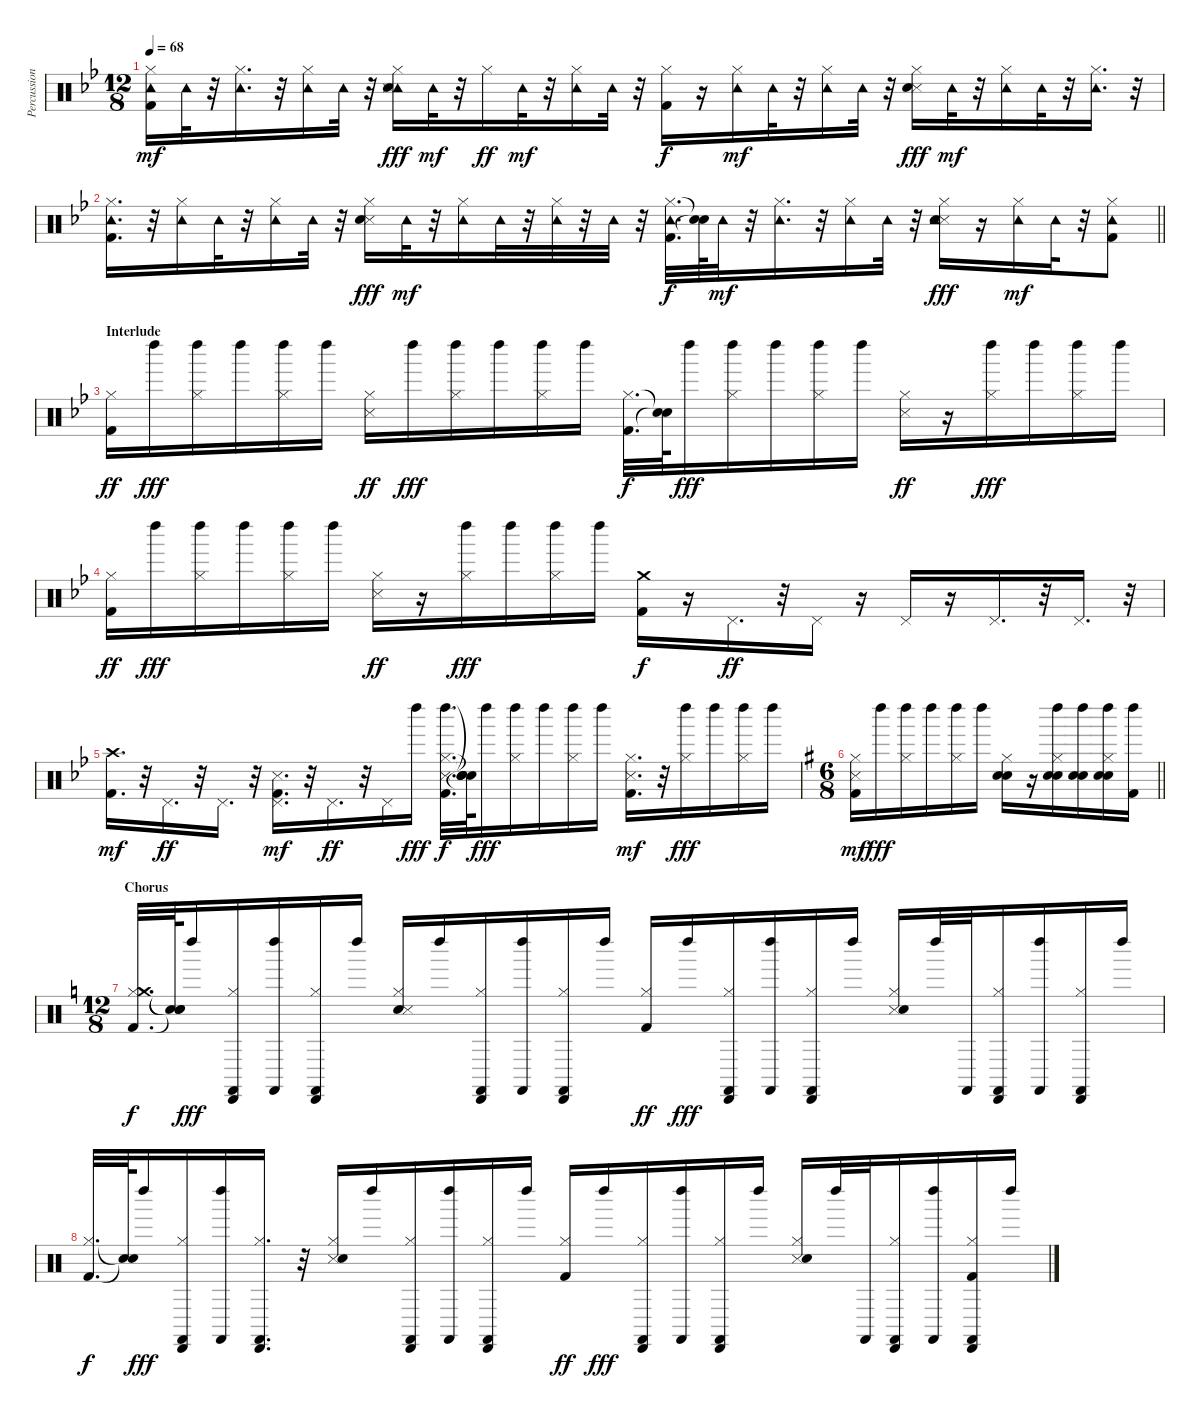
\track ("Percussion" "Percussion") {instrument percussion}
\staff {score}
\articulation defaults
\ts (12 8)
\tempo 68
\clef neutral
\ks gminor
("Kick (hit) 2" "Hi-Hat (closed)" "Tambourine (hit)").16{dy mf} "Tambourine (hit)".32 r.32 ("Hi-Hat (closed)" "Tambourine (hit)").16{d} r.32 ("Hi-Hat (closed)" "Tambourine (hit)").16 "Tambourine (hit)".32 r.32 ("Hi-Hat (closed)" "Tambourine (hit)" "Snare (side stick) 3" "Snare (hit) 2").16{dy fff} "Tambourine (hit)".32{dy mf} r.32 "Hi-Hat (closed)".16{dy ff} "Tambourine (hit)".32{dy mf} r.32 ("Hi-Hat (closed)" "Tambourine (hit)").16 "Tambourine (hit)".32 r.32 ("Kick (hit) 2" "Hi-Hat (closed)").16{dy f} r.16 ("Hi-Hat (closed)" "Tambourine (hit)").16{dy mf} "Tambourine (hit)".32 r.32 ("Hi-Hat (closed)" "Tambourine (hit)").16 "Tambourine (hit)".32 r.32 ("Snare (side stick) 3" "Hi-Hat (closed)" "Snare (hit) 2").16{dy fff} "Tambourine (hit)".32{dy mf} r.32 ("Hi-Hat (closed)" "Tambourine (hit)").16 "Tambourine (hit)".32 r.32 ("Hi-Hat (closed)" "Tambourine (hit)").16{d} r.32 |
\barLineRight lightlight
("Kick (hit) 2" "Hi-Hat (closed)" "Tambourine (hit)").16{d} r.32 ("Hi-Hat (closed)" "Tambourine (hit)").16 "Tambourine (hit)".32 r.32 ("Hi-Hat (closed)" "Tambourine (hit)").16 "Tambourine (hit)".32 r.32 ("Snare (side stick) 3" "Hi-Hat (closed)" "Snare (hit) 2").16{dy fff} "Tambourine (hit)".32{dy mf} r.32 ("Hi-Hat (closed)" "Tambourine (hit)").16 "Tambourine (hit)".32 r.32 ("Tambourine (hit)" "Hi-Hat (closed)").32 r.32 "Tambourine (hit)".32 r.32 ("Kick (hit) 2" "Hi-Hat (closed)" "Tambourine (hit)").32{d dy f} ("Snare (hit)"{t} "Snare (hit)"{t}).64 "Tambourine (hit)".32{dy mf} r.32 ("Hi-Hat (closed)" "Tambourine (hit)").16{d} r.32 ("Hi-Hat (closed)" "Tambourine (hit)").16 "Tambourine (hit)".32 r.32 ("Snare (side stick) 3" "Hi-Hat (closed)" "Tambourine (hit)" "Snare (hit) 2").16{dy fff} r.16 ("Hi-Hat (closed)" "Tambourine (hit)").16{dy mf} "Tambourine (hit)".32 r.32 ("Kick (hit) 2" "Hi-Hat (closed)" "Tambourine (hit)").8 |
\section ("" "Interlude")
("Kick (hit) 2" "Hi-Hat (closed)").16{dy ff} "Left Maraca (hit)".16{dy fff} ("Hi-Hat (closed)" "Left Maraca (hit)").16 "Left Maraca (hit)".16 ("Hi-Hat (closed)" "Left Maraca (hit)").16 "Left Maraca (hit)".16 ("Snare (side stick) 3" "Hi-Hat (closed)").16{dy ff} "Left Maraca (hit)".16{dy fff} ("Hi-Hat (closed)" "Left Maraca (hit)").16 "Left Maraca (hit)".16 ("Hi-Hat (closed)" "Left Maraca (hit)").16 "Left Maraca (hit)".16 ("Kick (hit) 2" "Hi-Hat (closed)").32{d dy f} ("Snare (hit)"{t} "Snare (hit)"{t}).64 "Left Maraca (hit)".16{dy fff} ("Hi-Hat (closed)" "Left Maraca (hit)").16 "Left Maraca (hit)".16 ("Hi-Hat (closed)" "Left Maraca (hit)").16 "Left Maraca (hit)".16 ("Snare (side stick) 3" "Hi-Hat (closed)").16{dy ff} r.16 ("Hi-Hat (closed)" "Left Maraca (hit)").16{dy fff} "Left Maraca (hit)".16 ("Hi-Hat (closed)" "Left Maraca (hit)").16 "Left Maraca (hit)".16 |
("Kick (hit) 2" "Hi-Hat (closed)").16{dy ff} "Left Maraca (hit)".16{dy fff} ("Hi-Hat (closed)" "Left Maraca (hit)").16 "Left Maraca (hit)".16 ("Hi-Hat (closed)" "Left Maraca (hit)").16 "Left Maraca (hit)".16 ("Snare (side stick) 3" "Hi-Hat (closed)").16{dy ff} r.16 ("Hi-Hat (closed)" "Left Maraca (hit)").16{dy fff} "Left Maraca (hit)".16 ("Hi-Hat (closed)" "Left Maraca (hit)").16 "Left Maraca (hit)".16 ("Kick (hit) 2" "Crash medium (hit)").16{dy f} r.16 "Pedal Hi-Hat (hit)".16{d dy ff} r.32 "Pedal Hi-Hat (hit)".16 r.16 "Pedal Hi-Hat (hit)".16 r.16 "Pedal Hi-Hat (hit)".16{d} r.32 "Pedal Hi-Hat (hit)".16{d} r.32 |
("Kick (hit) 2" "Crash high (hit)").16{d dy mf} r.32 "Pedal Hi-Hat (hit)".16{d dy ff} r.32 "Pedal Hi-Hat (hit)".16{d} r.32 ("Pedal Hi-Hat (hit)" "Snare (side stick) 3" "Kick (hit) 2").16{d dy mf} r.32 "Pedal Hi-Hat (hit)".16{d dy ff} r.32 "Pedal Hi-Hat (hit)".16 "Left Maraca (hit)".16{dy fff} ("Kick (hit) 2" "Hi-Hat (closed)" "Snare (side stick) 3" "Left Maraca (hit)").32{d dy f} ("Snare (hit)"{t} "Snare (hit)"{t} "Snare (hit)"{t} "Snare (hit)"{t}).64 "Left Maraca (hit)".16{dy fff} ("Hi-Hat (closed)" "Left Maraca (hit)").16 "Left Maraca (hit)".16 ("Hi-Hat (closed)" "Left Maraca (hit)").16 "Left Maraca (hit)".16 ("Snare (side stick) 3" "Hi-Hat (closed)" "Kick (hit) 2").16{d dy mf} r.32 ("Hi-Hat (closed)" "Left Maraca (hit)").16{dy fff} "Left Maraca (hit)".16 ("Hi-Hat (closed)" "Left Maraca (hit)").16 "Left Maraca (hit)".16 |
\ts (6 8)
\barLineRight lightlight
\ks g
("Kick (hit) 2" "Hi-Hat (closed)" "Snare (side stick) 3").16{dy mf} "Left Maraca (hit)".16{dy fff} ("Hi-Hat (closed)" "Left Maraca (hit)").16 "Left Maraca (hit)".16 ("Hi-Hat (closed)" "Left Maraca (hit)").16 "Left Maraca (hit)".16 ("Hi-Hat (closed)" "Snare (hit) 2" "Electric Snare (hit)").16 r.16 ("Hi-Hat (closed)" "Electric Snare (hit)" "Snare (hit) 2" "Left Maraca (hit)").16 ("Electric Snare (hit)" "Snare (hit) 2" "Left Maraca (hit)").16 ("Electric Snare (hit)" "Snare (hit) 2" "Hi-Hat (closed)" "Left Maraca (hit)").16 ("Kick (hit) 2" "Left Maraca (hit)").16 |
\ts (12 8)
\section ("" "Chorus")
\ks c
("Kick (hit) 2" "Hi-Hat (closed)" "Crash medium (hit)").32{d dy f} ("Snare (hit)"{t} "Snare (hit)"{t} "Snare (hit)"{t}).64 "Left Maraca (hit)".16{dy fff} ("Hi-Hat (closed)" "Cabasa (hit)" "Castanets (hit)").16 ("Left Maraca (hit)" "Castanets (hit)").16 ("Hi-Hat (closed)" "Cabasa (hit)" "Castanets (hit)").16 "Left Maraca (hit)".16 ("Hi-Hat (closed)" "Snare (hit) 2" "Snare (side stick) 3").16 "Left Maraca (hit)".16 ("Hi-Hat (closed)" "Cabasa (hit)" "Castanets (hit)").16 ("Left Maraca (hit)" "Castanets (hit)").16 ("Hi-Hat (closed)" "Cabasa (hit)" "Castanets (hit)").16 "Left Maraca (hit)".16 ("Kick (hit) 2" "Hi-Hat (closed)").16{dy ff} "Left Maraca (hit)".16{dy fff} ("Hi-Hat (closed)" "Cabasa (hit)" "Castanets (hit)").16 ("Left Maraca (hit)" "Castanets (hit)").16 ("Hi-Hat (closed)" "Cabasa (hit)" "Castanets (hit)").16 "Left Maraca (hit)".16 ("Snare (side stick) 3" "Hi-Hat (closed)" "Snare (hit) 2").16 "Left Maraca (hit)".32 "Castanets (hit)".32 ("Hi-Hat (closed)" "Cabasa (hit)" "Castanets (hit)").16 ("Left Maraca (hit)" "Castanets (hit)").16 ("Hi-Hat (closed)" "Cabasa (hit)" "Castanets (hit)").16 "Left Maraca (hit)".16 |
("Kick (hit) 2" "Hi-Hat (closed)").32{d dy f} ("Snare (hit)"{t} "Snare (hit)"{t}).64 "Left Maraca (hit)".16{dy fff} ("Hi-Hat (closed)" "Cabasa (hit)" "Castanets (hit)").16 ("Left Maraca (hit)" "Castanets (hit)").16 ("Hi-Hat (closed)" "Cabasa (hit)" "Castanets (hit)").16{d} r.32 ("Snare (side stick) 3" "Hi-Hat (closed)" "Snare (hit) 2").16 "Left Maraca (hit)".16 ("Hi-Hat (closed)" "Cabasa (hit)" "Castanets (hit)").16 ("Left Maraca (hit)" "Castanets (hit)").16 ("Hi-Hat (closed)" "Cabasa (hit)" "Castanets (hit)").16 "Left Maraca (hit)".16 ("Kick (hit) 2" "Hi-Hat (closed)").16{dy ff} "Left Maraca (hit)".16{dy fff} ("Hi-Hat (closed)" "Cabasa (hit)" "Castanets (hit)").16 ("Left Maraca (hit)" "Castanets (hit)").16 ("Hi-Hat (closed)" "Cabasa (hit)" "Castanets (hit)").16 "Left Maraca (hit)".16 ("Snare (side stick) 3" "Hi-Hat (closed)" "Snare (hit) 2").16 "Left Maraca (hit)".32 "Castanets (hit)".32 ("Hi-Hat (closed)" "Cabasa (hit)" "Castanets (hit)").16 ("Left Maraca (hit)" "Castanets (hit)").16 ("Kick (hit) 2" "Hi-Hat (closed)" "Cabasa (hit)" "Castanets (hit)").16 "Left Maraca (hit)".16
